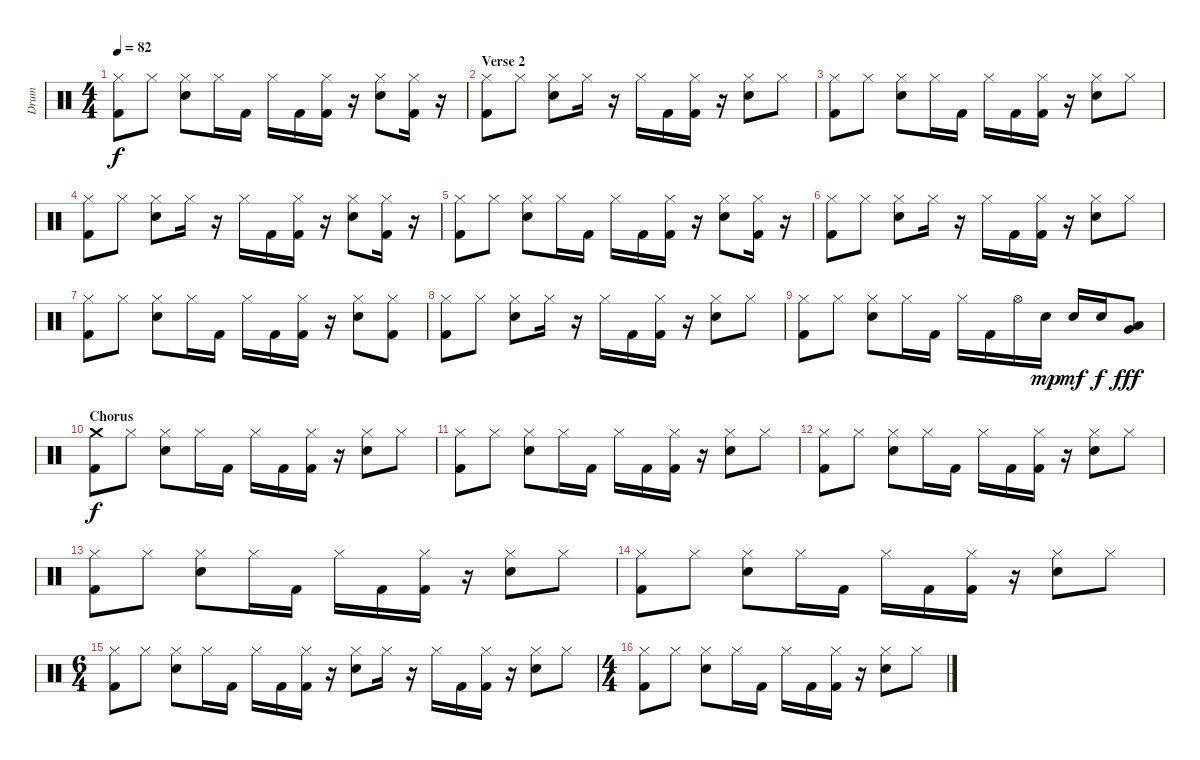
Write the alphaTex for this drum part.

\track ("Drum" "Drum") {instrument percussion}
\staff {score}
\articulation defaults
\ts (4 4)
\tempo 82
\clef neutral
\ks c
("Hi-Hat (closed)" "Kick (hit) 2").8{dy f} "Hi-Hat (closed)".8 ("Hi-Hat (closed)" "Electric Snare (hit)").8 "Hi-Hat (closed)".16 "Kick (hit) 2".16 "Hi-Hat (closed)".16 "Kick (hit) 2".16 ("Hi-Hat (closed)" "Kick (hit) 2").16 r.16 ("Hi-Hat (closed)" "Electric Snare (hit)").8 ("Hi-Hat (closed)" "Kick (hit) 2").16 r.16 |
\section ("" "Verse 2")
("Hi-Hat (closed)" "Kick (hit) 2").8 "Hi-Hat (closed)".8 ("Hi-Hat (closed)" "Electric Snare (hit)").8 "Hi-Hat (closed)".16 r.16 "Hi-Hat (closed)".16 "Kick (hit) 2".16 ("Hi-Hat (closed)" "Kick (hit) 2").16 r.16 ("Hi-Hat (closed)" "Electric Snare (hit)").8 "Hi-Hat (closed)".8 |
("Hi-Hat (closed)" "Kick (hit) 2").8 "Hi-Hat (closed)".8 ("Hi-Hat (closed)" "Electric Snare (hit)").8 "Hi-Hat (closed)".16 "Kick (hit) 2".16 "Hi-Hat (closed)".16 "Kick (hit) 2".16 ("Hi-Hat (closed)" "Kick (hit) 2").16 r.16 ("Hi-Hat (closed)" "Electric Snare (hit)").8 "Hi-Hat (closed)".8 |
("Hi-Hat (closed)" "Kick (hit) 2").8 "Hi-Hat (closed)".8 ("Hi-Hat (closed)" "Electric Snare (hit)").8 "Hi-Hat (closed)".16 r.16 "Hi-Hat (closed)".16 "Kick (hit) 2".16 ("Hi-Hat (closed)" "Kick (hit) 2").16 r.16 ("Hi-Hat (closed)" "Electric Snare (hit)").8 ("Hi-Hat (closed)" "Kick (hit) 2").16 r.16 |
("Hi-Hat (closed)" "Kick (hit) 2").8 "Hi-Hat (closed)".8 ("Hi-Hat (closed)" "Electric Snare (hit)").8 "Hi-Hat (closed)".16 "Kick (hit) 2".16 "Hi-Hat (closed)".16 "Kick (hit) 2".16 ("Hi-Hat (closed)" "Kick (hit) 2").16 r.16 ("Hi-Hat (closed)" "Electric Snare (hit)").8 ("Hi-Hat (closed)" "Kick (hit) 2").16 r.16 |
("Hi-Hat (closed)" "Kick (hit) 2").8 "Hi-Hat (closed)".8 ("Hi-Hat (closed)" "Electric Snare (hit)").8 "Hi-Hat (closed)".16 r.16 "Hi-Hat (closed)".16 "Kick (hit) 2".16 ("Hi-Hat (closed)" "Kick (hit) 2").16 r.16 ("Hi-Hat (closed)" "Electric Snare (hit)").8 "Hi-Hat (closed)".8 |
("Hi-Hat (closed)" "Kick (hit) 2").8 "Hi-Hat (closed)".8 ("Hi-Hat (closed)" "Electric Snare (hit)").8 "Hi-Hat (closed)".16 "Kick (hit) 2".16 "Hi-Hat (closed)".16 "Kick (hit) 2".16 ("Hi-Hat (closed)" "Kick (hit) 2").16 r.16 ("Hi-Hat (closed)" "Electric Snare (hit)").8 ("Hi-Hat (closed)" "Kick (hit) 2").8 |
("Hi-Hat (closed)" "Kick (hit) 2").8 "Hi-Hat (closed)".8 ("Hi-Hat (closed)" "Electric Snare (hit)").8 "Hi-Hat (closed)".16 r.16 "Hi-Hat (closed)".16 "Kick (hit) 2".16 ("Hi-Hat (closed)" "Kick (hit) 2").16 r.16 ("Hi-Hat (closed)" "Electric Snare (hit)").8 "Hi-Hat (closed)".8 |
("Hi-Hat (closed)" "Kick (hit) 2").8 "Hi-Hat (closed)".8 ("Hi-Hat (closed)" "Electric Snare (hit)").8 "Hi-Hat (closed)".16 "Kick (hit) 2".16 "Hi-Hat (closed)".16 "Kick (hit) 2".16 "Hi-Hat (open)".16 "Electric Snare (hit)".16{dy mp} "Electric Snare (hit)".16{dy mf} "Electric Snare (hit)".16{dy f} ("Low Tom (hit)" "Very Low Tom (hit)").8{dy fff} |
\section ("" "Chorus")
("Crash medium (hit)" "Kick (hit) 2").8{dy f} "Hi-Hat (closed)".8 ("Hi-Hat (closed)" "Electric Snare (hit)").8 "Hi-Hat (closed)".16 "Kick (hit) 2".16 "Hi-Hat (closed)".16 "Kick (hit) 2".16 ("Hi-Hat (closed)" "Kick (hit) 2").16 r.16 ("Hi-Hat (closed)" "Electric Snare (hit)").8 "Hi-Hat (closed)".8 |
("Hi-Hat (closed)" "Kick (hit) 2").8 "Hi-Hat (closed)".8 ("Hi-Hat (closed)" "Electric Snare (hit)").8 "Hi-Hat (closed)".16 "Kick (hit) 2".16 "Hi-Hat (closed)".16 "Kick (hit) 2".16 ("Hi-Hat (closed)" "Kick (hit) 2").16 r.16 ("Hi-Hat (closed)" "Electric Snare (hit)").8 "Hi-Hat (closed)".8 |
("Hi-Hat (closed)" "Kick (hit) 2").8 "Hi-Hat (closed)".8 ("Hi-Hat (closed)" "Electric Snare (hit)").8 "Hi-Hat (closed)".16 "Kick (hit) 2".16 "Hi-Hat (closed)".16 "Kick (hit) 2".16 ("Hi-Hat (closed)" "Kick (hit) 2").16 r.16 ("Hi-Hat (closed)" "Electric Snare (hit)").8 "Hi-Hat (closed)".8 |
("Hi-Hat (closed)" "Kick (hit) 2").8 "Hi-Hat (closed)".8 ("Hi-Hat (closed)" "Electric Snare (hit)").8 "Hi-Hat (closed)".16 "Kick (hit) 2".16 "Hi-Hat (closed)".16 "Kick (hit) 2".16 ("Hi-Hat (closed)" "Kick (hit) 2").16 r.16 ("Hi-Hat (closed)" "Electric Snare (hit)").8 "Hi-Hat (closed)".8 |
("Hi-Hat (closed)" "Kick (hit) 2").8 "Hi-Hat (closed)".8 ("Hi-Hat (closed)" "Electric Snare (hit)").8 "Hi-Hat (closed)".16 "Kick (hit) 2".16 "Hi-Hat (closed)".16 "Kick (hit) 2".16 ("Hi-Hat (closed)" "Kick (hit) 2").16 r.16 ("Hi-Hat (closed)" "Electric Snare (hit)").8 "Hi-Hat (closed)".8 |
\ts (6 4)
("Hi-Hat (closed)" "Kick (hit) 2").8 "Hi-Hat (closed)".8 ("Hi-Hat (closed)" "Electric Snare (hit)").8 "Hi-Hat (closed)".16 "Kick (hit) 2".16 "Hi-Hat (closed)".16 "Kick (hit) 2".16 ("Hi-Hat (closed)" "Kick (hit) 2").16 r.16 ("Hi-Hat (closed)" "Electric Snare (hit)").8 "Hi-Hat (closed)".16 r.16 "Hi-Hat (closed)".16 "Kick (hit) 2".16 ("Hi-Hat (closed)" "Kick (hit) 2").16 r.16 ("Hi-Hat (closed)" "Electric Snare (hit)").8 "Hi-Hat (closed)".8 |
\ts (4 4)
("Hi-Hat (closed)" "Kick (hit) 2").8 "Hi-Hat (closed)".8 ("Hi-Hat (closed)" "Electric Snare (hit)").8 "Hi-Hat (closed)".16 "Kick (hit) 2".16 "Hi-Hat (closed)".16 "Kick (hit) 2".16 ("Hi-Hat (closed)" "Kick (hit) 2").16 r.16 ("Hi-Hat (closed)" "Electric Snare (hit)").8 "Hi-Hat (closed)".8
